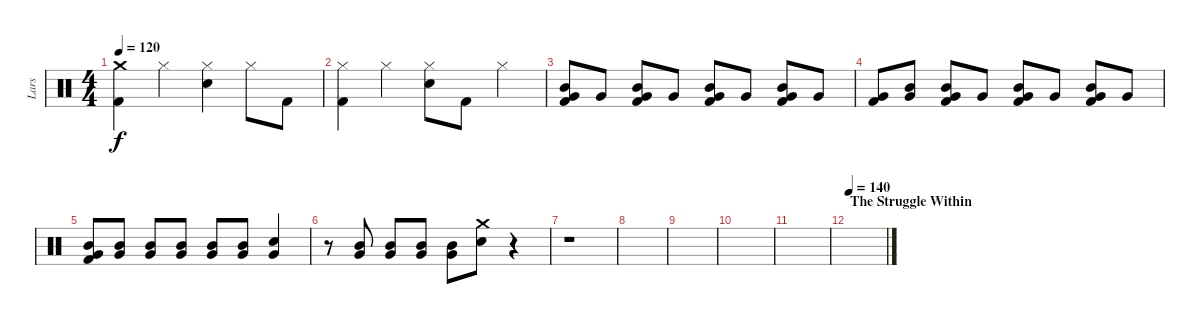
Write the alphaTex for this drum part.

\track ("Lars" "Lars") {instrument percussion}
\staff {score}
\articulation defaults
\ts (4 4)
\tempo 120
\clef neutral
\ks c
("Crash medium (hit)" "Kick (hit) 2").4{dy f} "Hi-Hat (closed)".4 ("Snare (hit) 2" "Hi-Hat (closed)").4 "Hi-Hat (closed)".8 "Kick (hit) 2".8 |
("Kick (hit) 2" "Hi-Hat (closed)").4 "Hi-Hat (closed)".4 ("Snare (hit) 2" "Hi-Hat (closed)").8 "Kick (hit) 2".8 "Hi-Hat (closed)".4 |
("Kick (hit) 2" "Very Low Tom (hit)" "Mid Tom (hit)").8 "Very Low Tom (hit)".8 ("Kick (hit) 2" "Very Low Tom (hit)" "Mid Tom (hit)").8 "Very Low Tom (hit)".8 ("Kick (hit) 2" "Very Low Tom (hit)" "Mid Tom (hit)").8 "Very Low Tom (hit)".8 ("Kick (hit) 2" "Very Low Tom (hit)" "Mid Tom (hit)").8 "Very Low Tom (hit)".8 |
("Very Low Tom (hit)" "Kick (hit) 2").8 ("Mid Tom (hit)" "Very Low Tom (hit)").8 ("Kick (hit) 2" "Very Low Tom (hit)" "Mid Tom (hit)").8 "Very Low Tom (hit)".8 ("Very Low Tom (hit)" "Mid Tom (hit)" "Kick (hit) 2").8 "Very Low Tom (hit)".8 ("Mid Tom (hit)" "Very Low Tom (hit)" "Kick (hit) 2").8 "Very Low Tom (hit)".8 |
("Very Low Tom (hit)" "Mid Tom (hit)" "Kick (hit) 2").8 ("Very Low Tom (hit)" "Mid Tom (hit)").8 ("Mid Tom (hit)" "Very Low Tom (hit)").8 ("Very Low Tom (hit)" "Mid Tom (hit)").8 ("Very Low Tom (hit)" "Mid Tom (hit)").8 ("Very Low Tom (hit)" "Mid Tom (hit)").8 ("Very Low Tom (hit)" "Snare (hit) 2").4 |
r.8 ("Very Low Tom (hit)" "Mid Tom (hit)").8 ("Mid Tom (hit)" "Very Low Tom (hit)").8 ("Mid Tom (hit)" "Very Low Tom (hit)").8 ("Mid Tom (hit)" "Very Low Tom (hit)").8 ("Crash medium (hit)" "Snare (hit) 2").8 r.4 |
r.1 |
|
|
|
|
\section ("" "The Struggle Within")
\tempo 180
\tempo 140
